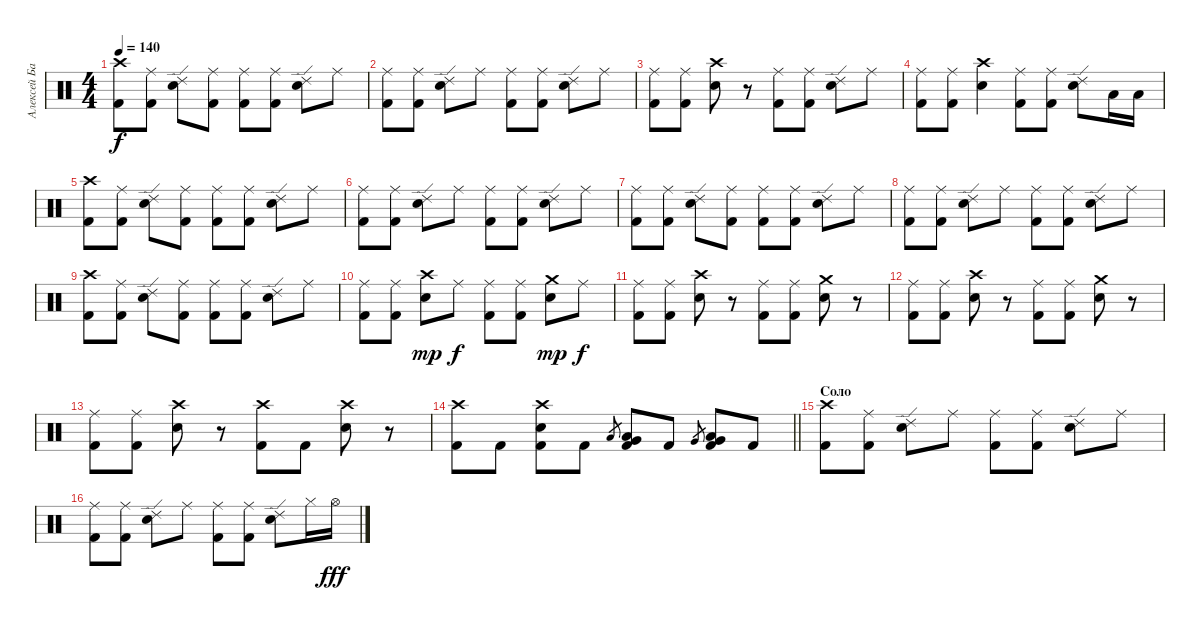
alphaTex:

\track ("Алексей Барзилович" "Алексей Ба") {instrument percussion}
\staff {score}
\articulation defaults
\ts (4 4)
\tempo 140
\clef neutral
\ks c
("Crash high (hit)" "Kick (hit) 2").8{dy f} ("Ride (middle)" "Kick (hit) 2").8 ("Ride (edge) 2" "Electric Snare (hit)").8 ("Ride (middle)" "Kick (hit) 2").8 ("Ride (middle)" "Kick (hit) 2").8 ("Ride (middle)" "Kick (hit) 2").8 ("Ride (edge) 2" "Electric Snare (hit)").8 "Ride (middle)".8 |
("Ride (middle)" "Kick (hit) 2").8 ("Ride (middle)" "Kick (hit) 2").8 ("Ride (edge) 2" "Electric Snare (hit)").8 "Ride (middle)".8 ("Ride (middle)" "Kick (hit) 2").8 ("Ride (middle)" "Kick (hit) 2").8 ("Ride (edge) 2" "Electric Snare (hit)").8 "Ride (middle)".8 |
("Ride (middle)" "Kick (hit) 2").8 ("Ride (middle)" "Kick (hit) 2").8 ("Crash high (hit)" "Electric Snare (hit)").8 r.8 ("Ride (middle)" "Kick (hit) 2").8 ("Ride (middle)" "Kick (hit) 2").8 ("Ride (edge) 2" "Electric Snare (hit)").8 "Ride (middle)".8 |
("Ride (middle)" "Kick (hit) 2").8 ("Ride (middle)" "Kick (hit) 2").8 ("Crash high (hit)" "Electric Snare (hit)").4 ("Ride (middle)" "Kick (hit) 2").8 ("Ride (middle)" "Kick (hit) 2").8 ("Ride (edge) 2" "Electric Snare (hit)").8 "Low Tom (hit)".16 "Low Tom (hit)".16 |
("Crash high (hit)" "Kick (hit) 2").8 ("Ride (middle)" "Kick (hit) 2").8 ("Ride (edge) 2" "Electric Snare (hit)").8 ("Ride (middle)" "Kick (hit) 2").8 ("Ride (middle)" "Kick (hit) 2").8 ("Ride (middle)" "Kick (hit) 2").8 ("Ride (edge) 2" "Electric Snare (hit)").8 "Ride (middle)".8 |
("Ride (middle)" "Kick (hit) 2").8 ("Ride (middle)" "Kick (hit) 2").8 ("Ride (edge) 2" "Electric Snare (hit)").8 "Ride (middle)".8 ("Ride (middle)" "Kick (hit) 2").8 ("Ride (middle)" "Kick (hit) 2").8 ("Ride (edge) 2" "Electric Snare (hit)").8 "Ride (middle)".8 |
("Ride (middle)" "Kick (hit) 2").8 ("Ride (middle)" "Kick (hit) 2").8 ("Ride (edge) 2" "Electric Snare (hit)").8 ("Ride (middle)" "Kick (hit) 2").8 ("Ride (middle)" "Kick (hit) 2").8 ("Ride (middle)" "Kick (hit) 2").8 ("Ride (edge) 2" "Electric Snare (hit)").8 "Ride (middle)".8 |
("Ride (middle)" "Kick (hit) 2").8 ("Ride (middle)" "Kick (hit) 2").8 ("Ride (edge) 2" "Electric Snare (hit)").8 "Ride (middle)".8 ("Ride (middle)" "Kick (hit) 2").8 ("Ride (middle)" "Kick (hit) 2").8 ("Ride (edge) 2" "Electric Snare (hit)").8 "Ride (middle)".8 |
("Crash high (hit)" "Kick (hit) 2").8 ("Ride (middle)" "Kick (hit) 2").8 ("Ride (edge) 2" "Electric Snare (hit)").8 ("Ride (middle)" "Kick (hit) 2").8 ("Ride (middle)" "Kick (hit) 2").8 ("Ride (middle)" "Kick (hit) 2").8 ("Ride (edge) 2" "Electric Snare (hit)").8 "Ride (middle)".8 |
("Ride (middle)" "Kick (hit) 2").8 ("Ride (middle)" "Kick (hit) 2").8 ("Crash high (hit)" "Electric Snare (hit)").8{dy mp} "Ride (middle)".8{dy f} ("Ride (middle)" "Kick (hit) 2").8 ("Ride (middle)" "Kick (hit) 2").8 ("Crash medium (hit)" "Electric Snare (hit)").8{dy mp} "Ride (middle)".8{dy f} |
("Ride (middle)" "Kick (hit) 2").8 ("Ride (middle)" "Kick (hit) 2").8 ("Crash high (hit)" "Electric Snare (hit)").8 r.8 ("Ride (middle)" "Kick (hit) 2").8 ("Ride (middle)" "Kick (hit) 2").8 ("Crash medium (hit)" "Electric Snare (hit)").8 r.8 |
("Ride (middle)" "Kick (hit) 2").8 ("Ride (middle)" "Kick (hit) 2").8 ("Crash high (hit)" "Electric Snare (hit)").8 r.8 ("Ride (middle)" "Kick (hit) 2").8 ("Ride (middle)" "Kick (hit) 2").8 ("Crash medium (hit)" "Electric Snare (hit)").8 r.8 |
("Ride (middle)" "Kick (hit) 2").8 ("Ride (middle)" "Kick (hit) 2").8 ("Crash high (hit)" "Electric Snare (hit)").8 r.8 ("Crash high (hit)" "Kick (hit) 2").8 "Kick (hit) 2".8 ("Crash high (hit)" "Electric Snare (hit)").8 r.8 |
\barLineRight lightlight
("Crash high (hit)" "Kick (hit) 2").8 "Kick (hit) 2".8 ("Crash high (hit)" "Electric Snare (hit)" "Kick (hit) 2").8 "Kick (hit) 2".8 "Low Tom (hit)".8{gr} ("Low Tom (hit)" "Very Low Tom (hit)" "Kick (hit) 2").8 "Kick (hit) 2".8 "Very Low Tom (hit)".8{gr} ("Very Low Tom (hit)" "Low Floor Tom (hit)" "Kick (hit) 2").8 "Kick (hit) 2".8 |
\section ("" "Соло")
("Crash high (hit)" "Kick (hit) 2").8 ("Ride (middle)" "Kick (hit) 2").8 ("Ride (edge) 2" "Electric Snare (hit)").8 "Ride (middle)".8 ("Ride (middle)" "Kick (hit) 2").8 ("Ride (middle)" "Kick (hit) 2").8 ("Ride (edge) 2" "Electric Snare (hit)").8 "Ride (middle)".8 |
("Ride (middle)" "Kick (hit) 2").8 ("Ride (middle)" "Kick (hit) 2").8 ("Ride (edge) 2" "Electric Snare (hit)").8 "Ride (middle)".8 ("Ride (middle)" "Kick (hit) 2").8 ("Ride (middle)" "Kick (hit) 2").8 ("Ride (edge) 2" "Electric Snare (hit)").8 "Hi-Hat (closed)".16 "Hi-Hat (open)".16{dy fff}
